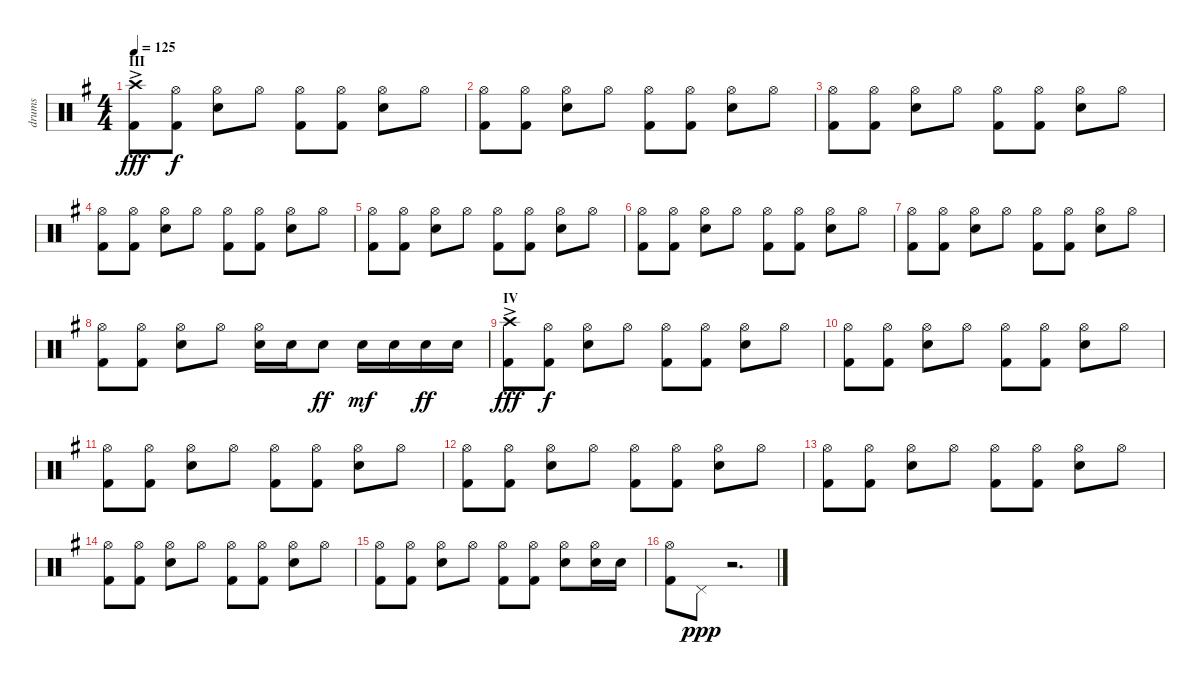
\track ("drums" "drums") {instrument percussion}
\staff {score}
\articulation defaults
\ts (4 4)
\section ("" "III")
\tempo 125
\clef neutral
\ks eminor
("Crash high (hit)"{ac} "Kick (hit) 2"{ac}).8{dy fff} ("Hi-Hat (open)" "Kick (hit) 2").8{dy f} ("Hi-Hat (open)" "Snare (hit) 2").8 "Hi-Hat (open)".8 ("Hi-Hat (open)" "Kick (hit) 2").8 ("Hi-Hat (open)" "Kick (hit) 2").8 ("Hi-Hat (open)" "Snare (hit) 2").8 "Hi-Hat (open)".8 |
("Hi-Hat (open)" "Kick (hit) 2").8 ("Hi-Hat (open)" "Kick (hit) 2").8 ("Hi-Hat (open)" "Snare (hit) 2").8 "Hi-Hat (open)".8 ("Hi-Hat (open)" "Kick (hit) 2").8 ("Hi-Hat (open)" "Kick (hit) 2").8 ("Hi-Hat (open)" "Snare (hit) 2").8 "Hi-Hat (open)".8 |
("Hi-Hat (open)" "Kick (hit) 2").8 ("Hi-Hat (open)" "Kick (hit) 2").8 ("Hi-Hat (open)" "Snare (hit) 2").8 "Hi-Hat (open)".8 ("Hi-Hat (open)" "Kick (hit) 2").8 ("Hi-Hat (open)" "Kick (hit) 2").8 ("Hi-Hat (open)" "Snare (hit) 2").8 "Hi-Hat (open)".8 |
("Hi-Hat (open)" "Kick (hit) 2").8 ("Hi-Hat (open)" "Kick (hit) 2").8 ("Hi-Hat (open)" "Snare (hit) 2").8 "Hi-Hat (open)".8 ("Hi-Hat (open)" "Kick (hit) 2").8 ("Hi-Hat (open)" "Kick (hit) 2").8 ("Hi-Hat (open)" "Snare (hit) 2").8 "Hi-Hat (open)".8 |
("Hi-Hat (open)" "Kick (hit) 2").8 ("Hi-Hat (open)" "Kick (hit) 2").8 ("Hi-Hat (open)" "Snare (hit) 2").8 "Hi-Hat (open)".8 ("Hi-Hat (open)" "Kick (hit) 2").8 ("Hi-Hat (open)" "Kick (hit) 2").8 ("Hi-Hat (open)" "Snare (hit) 2").8 "Hi-Hat (open)".8 |
("Hi-Hat (open)" "Kick (hit) 2").8 ("Hi-Hat (open)" "Kick (hit) 2").8 ("Hi-Hat (open)" "Snare (hit) 2").8 "Hi-Hat (open)".8 ("Hi-Hat (open)" "Kick (hit) 2").8 ("Hi-Hat (open)" "Kick (hit) 2").8 ("Hi-Hat (open)" "Snare (hit) 2").8 "Hi-Hat (open)".8 |
("Hi-Hat (open)" "Kick (hit) 2").8 ("Hi-Hat (open)" "Kick (hit) 2").8 ("Hi-Hat (open)" "Snare (hit) 2").8 "Hi-Hat (open)".8 ("Hi-Hat (open)" "Kick (hit) 2").8 ("Hi-Hat (open)" "Kick (hit) 2").8 ("Hi-Hat (open)" "Snare (hit) 2").8 "Hi-Hat (open)".8 |
("Hi-Hat (open)" "Kick (hit) 2").8 ("Hi-Hat (open)" "Kick (hit) 2").8 ("Hi-Hat (open)" "Snare (hit) 2").8 "Hi-Hat (open)".8 ("Hi-Hat (open)" "Snare (hit) 2").16 "Snare (hit) 2".16 "Snare (hit) 2".8{dy ff} "Snare (hit) 2".16{dy mf} "Snare (hit) 2".16 "Snare (hit) 2".16{dy ff} "Snare (hit) 2".16 |
\section ("" "IV")
("Crash high (hit)"{ac} "Kick (hit) 2"{ac}).8{dy fff} ("Hi-Hat (open)" "Kick (hit) 2").8{dy f} ("Hi-Hat (open)" "Snare (hit) 2").8 "Hi-Hat (open)".8 ("Hi-Hat (open)" "Kick (hit) 2").8 ("Hi-Hat (open)" "Kick (hit) 2").8 ("Hi-Hat (open)" "Snare (hit) 2").8 "Hi-Hat (open)".8 |
("Hi-Hat (open)" "Kick (hit) 2").8 ("Hi-Hat (open)" "Kick (hit) 2").8 ("Hi-Hat (open)" "Snare (hit) 2").8 "Hi-Hat (open)".8 ("Hi-Hat (open)" "Kick (hit) 2").8 ("Hi-Hat (open)" "Kick (hit) 2").8 ("Hi-Hat (open)" "Snare (hit) 2").8 "Hi-Hat (open)".8 |
("Hi-Hat (open)" "Kick (hit) 2").8 ("Hi-Hat (open)" "Kick (hit) 2").8 ("Hi-Hat (open)" "Snare (hit) 2").8 "Hi-Hat (open)".8 ("Hi-Hat (open)" "Kick (hit) 2").8 ("Hi-Hat (open)" "Kick (hit) 2").8 ("Hi-Hat (open)" "Snare (hit) 2").8 "Hi-Hat (open)".8 |
("Hi-Hat (open)" "Kick (hit) 2").8 ("Hi-Hat (open)" "Kick (hit) 2").8 ("Hi-Hat (open)" "Snare (hit) 2").8 "Hi-Hat (open)".8 ("Hi-Hat (open)" "Kick (hit) 2").8 ("Hi-Hat (open)" "Kick (hit) 2").8 ("Hi-Hat (open)" "Snare (hit) 2").8 "Hi-Hat (open)".8 |
("Hi-Hat (open)" "Kick (hit) 2").8 ("Hi-Hat (open)" "Kick (hit) 2").8 ("Hi-Hat (open)" "Snare (hit) 2").8 "Hi-Hat (open)".8 ("Hi-Hat (open)" "Kick (hit) 2").8 ("Hi-Hat (open)" "Kick (hit) 2").8 ("Hi-Hat (open)" "Snare (hit) 2").8 "Hi-Hat (open)".8 |
("Hi-Hat (open)" "Kick (hit) 2").8 ("Hi-Hat (open)" "Kick (hit) 2").8 ("Hi-Hat (open)" "Snare (hit) 2").8 "Hi-Hat (open)".8 ("Hi-Hat (open)" "Kick (hit) 2").8 ("Hi-Hat (open)" "Kick (hit) 2").8 ("Hi-Hat (open)" "Snare (hit) 2").8 "Hi-Hat (open)".8 |
("Hi-Hat (open)" "Kick (hit) 2").8 ("Hi-Hat (open)" "Kick (hit) 2").8 ("Hi-Hat (open)" "Snare (hit) 2").8 "Hi-Hat (open)".8 ("Hi-Hat (open)" "Kick (hit) 2").8 ("Hi-Hat (open)" "Kick (hit) 2").8 ("Hi-Hat (open)" "Snare (hit) 2").8 ("Hi-Hat (open)" "Snare (hit) 2").16 "Snare (hit) 2".16 |
("Hi-Hat (open)" "Kick (hit) 2").8 "Pedal Hi-Hat (hit)".8{dy ppp} r.2{d}
